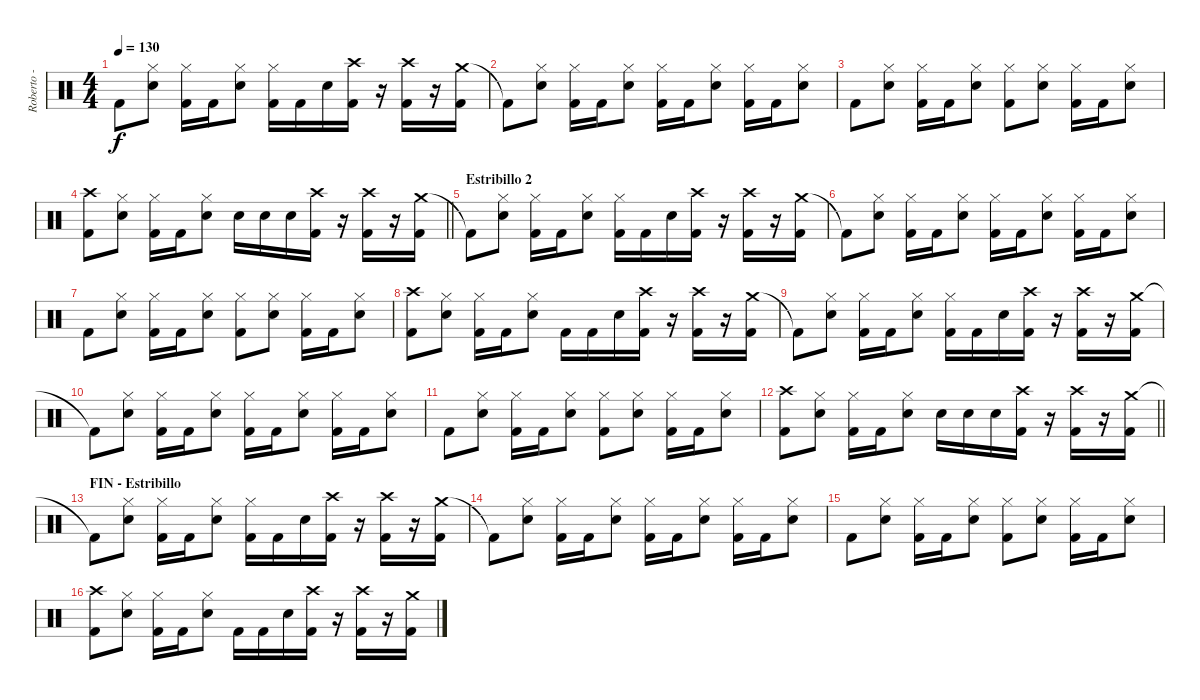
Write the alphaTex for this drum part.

\track ("Roberto - Bateria" "Roberto - ") {instrument percussion}
\staff {score}
\articulation defaults
\ts (4 4)
\tempo 130
\clef neutral
\ks c "Kick (hit) 2"{t}.8{dy f}
("Hi-Hat (closed)" "Snare (hit) 2").8 ("Hi-Hat (closed)" "Kick (hit) 2").16 "Kick (hit) 2".16 ("Hi-Hat (closed)" "Snare (hit) 2").8 ("Hi-Hat (closed)" "Kick (hit) 2").16 "Kick (hit) 2".16 "Snare (hit) 2".16 ("Crash high (hit)" "Kick (hit) 2").16 r.16 ("Crash high (hit)" "Kick (hit) 2").16 r.16 ("Crash medium (hit)" "Kick (hit) 2").16 |
"Kick (hit) 2"{t}.8 ("Hi-Hat (closed)" "Snare (hit) 2").8 ("Hi-Hat (closed)" "Kick (hit) 2").16 "Kick (hit) 2".16 ("Hi-Hat (closed)" "Snare (hit) 2").8 ("Hi-Hat (closed)" "Kick (hit) 2").16 "Kick (hit) 2".16 ("Hi-Hat (closed)" "Snare (hit) 2").8 ("Hi-Hat (closed)" "Kick (hit) 2").16 "Kick (hit) 2".16 ("Hi-Hat (closed)" "Snare (hit) 2").8 |
"Kick (hit) 2".8 ("Hi-Hat (closed)" "Snare (hit) 2").8 ("Hi-Hat (closed)" "Kick (hit) 2").16 "Kick (hit) 2".16 ("Hi-Hat (closed)" "Snare (hit) 2").8 ("Hi-Hat (closed)" "Kick (hit) 2").8 ("Hi-Hat (closed)" "Snare (hit) 2").8 ("Hi-Hat (closed)" "Kick (hit) 2").16 "Kick (hit) 2".16 ("Hi-Hat (closed)" "Snare (hit) 2").8 |
\barLineRight lightlight
("Crash high (hit)" "Kick (hit) 2").8 ("Hi-Hat (closed)" "Snare (hit) 2").8 ("Hi-Hat (closed)" "Kick (hit) 2").16 "Kick (hit) 2".16 ("Hi-Hat (closed)" "Snare (hit) 2").8 "Snare (hit) 2".16 "Snare (hit) 2".16 "Snare (hit) 2".16 ("Crash high (hit)" "Kick (hit) 2").16 r.16 ("Crash high (hit)" "Kick (hit) 2").16 r.16 ("Crash medium (hit)" "Kick (hit) 2").16 |
\section ("" "Estribillo 2")
"Kick (hit) 2"{t}.8 ("Hi-Hat (closed)" "Snare (hit) 2").8 ("Hi-Hat (closed)" "Kick (hit) 2").16 "Kick (hit) 2".16 ("Hi-Hat (closed)" "Snare (hit) 2").8 ("Hi-Hat (closed)" "Kick (hit) 2").16 "Kick (hit) 2".16 "Snare (hit) 2".16 ("Crash high (hit)" "Kick (hit) 2").16 r.16 ("Crash high (hit)" "Kick (hit) 2").16 r.16 ("Crash medium (hit)" "Kick (hit) 2").16 |
"Kick (hit) 2"{t}.8 ("Hi-Hat (closed)" "Snare (hit) 2").8 ("Hi-Hat (closed)" "Kick (hit) 2").16 "Kick (hit) 2".16 ("Hi-Hat (closed)" "Snare (hit) 2").8 ("Hi-Hat (closed)" "Kick (hit) 2").16 "Kick (hit) 2".16 ("Hi-Hat (closed)" "Snare (hit) 2").8 ("Hi-Hat (closed)" "Kick (hit) 2").16 "Kick (hit) 2".16 ("Hi-Hat (closed)" "Snare (hit) 2").8 |
"Kick (hit) 2".8 ("Hi-Hat (closed)" "Snare (hit) 2").8 ("Hi-Hat (closed)" "Kick (hit) 2").16 "Kick (hit) 2".16 ("Hi-Hat (closed)" "Snare (hit) 2").8 ("Hi-Hat (closed)" "Kick (hit) 2").8 ("Hi-Hat (closed)" "Snare (hit) 2").8 ("Hi-Hat (closed)" "Kick (hit) 2").16 "Kick (hit) 2".16 ("Hi-Hat (closed)" "Snare (hit) 2").8 |
("Crash high (hit)" "Kick (hit) 2").8 ("Hi-Hat (closed)" "Snare (hit) 2").8 ("Hi-Hat (closed)" "Kick (hit) 2").16 "Kick (hit) 2".16 ("Hi-Hat (closed)" "Snare (hit) 2").8 "Kick (hit) 2".16 "Kick (hit) 2".16 "Snare (hit) 2".16 ("Crash high (hit)" "Kick (hit) 2").16 r.16 ("Crash high (hit)" "Kick (hit) 2").16 r.16 ("Crash medium (hit)" "Kick (hit) 2").16 |
"Kick (hit) 2"{t}.8 ("Hi-Hat (closed)" "Snare (hit) 2").8 ("Hi-Hat (closed)" "Kick (hit) 2").16 "Kick (hit) 2".16 ("Hi-Hat (closed)" "Snare (hit) 2").8 ("Hi-Hat (closed)" "Kick (hit) 2").16 "Kick (hit) 2".16 "Snare (hit) 2".16 ("Crash high (hit)" "Kick (hit) 2").16 r.16 ("Crash high (hit)" "Kick (hit) 2").16 r.16 ("Crash medium (hit)" "Kick (hit) 2").16 |
"Kick (hit) 2"{t}.8 ("Hi-Hat (closed)" "Snare (hit) 2").8 ("Hi-Hat (closed)" "Kick (hit) 2").16 "Kick (hit) 2".16 ("Hi-Hat (closed)" "Snare (hit) 2").8 ("Hi-Hat (closed)" "Kick (hit) 2").16 "Kick (hit) 2".16 ("Hi-Hat (closed)" "Snare (hit) 2").8 ("Hi-Hat (closed)" "Kick (hit) 2").16 "Kick (hit) 2".16 ("Hi-Hat (closed)" "Snare (hit) 2").8 |
"Kick (hit) 2".8 ("Hi-Hat (closed)" "Snare (hit) 2").8 ("Hi-Hat (closed)" "Kick (hit) 2").16 "Kick (hit) 2".16 ("Hi-Hat (closed)" "Snare (hit) 2").8 ("Hi-Hat (closed)" "Kick (hit) 2").8 ("Hi-Hat (closed)" "Snare (hit) 2").8 ("Hi-Hat (closed)" "Kick (hit) 2").16 "Kick (hit) 2".16 ("Hi-Hat (closed)" "Snare (hit) 2").8 |
\barLineRight lightlight
("Crash high (hit)" "Kick (hit) 2").8 ("Hi-Hat (closed)" "Snare (hit) 2").8 ("Hi-Hat (closed)" "Kick (hit) 2").16 "Kick (hit) 2".16 ("Hi-Hat (closed)" "Snare (hit) 2").8 "Snare (hit) 2".16 "Snare (hit) 2".16 "Snare (hit) 2".16 ("Crash high (hit)" "Kick (hit) 2").16 r.16 ("Crash high (hit)" "Kick (hit) 2").16 r.16 ("Crash medium (hit)" "Kick (hit) 2").16 |
\section ("" "FIN - Estribillo")
"Kick (hit) 2"{t}.8 ("Hi-Hat (closed)" "Snare (hit) 2").8 ("Hi-Hat (closed)" "Kick (hit) 2").16 "Kick (hit) 2".16 ("Hi-Hat (closed)" "Snare (hit) 2").8 ("Hi-Hat (closed)" "Kick (hit) 2").16 "Kick (hit) 2".16 "Snare (hit) 2".16 ("Crash high (hit)" "Kick (hit) 2").16 r.16 ("Crash high (hit)" "Kick (hit) 2").16 r.16 ("Crash medium (hit)" "Kick (hit) 2").16 |
"Kick (hit) 2"{t}.8 ("Hi-Hat (closed)" "Snare (hit) 2").8 ("Hi-Hat (closed)" "Kick (hit) 2").16 "Kick (hit) 2".16 ("Hi-Hat (closed)" "Snare (hit) 2").8 ("Hi-Hat (closed)" "Kick (hit) 2").16 "Kick (hit) 2".16 ("Hi-Hat (closed)" "Snare (hit) 2").8 ("Hi-Hat (closed)" "Kick (hit) 2").16 "Kick (hit) 2".16 ("Hi-Hat (closed)" "Snare (hit) 2").8 |
"Kick (hit) 2".8 ("Hi-Hat (closed)" "Snare (hit) 2").8 ("Hi-Hat (closed)" "Kick (hit) 2").16 "Kick (hit) 2".16 ("Hi-Hat (closed)" "Snare (hit) 2").8 ("Hi-Hat (closed)" "Kick (hit) 2").8 ("Hi-Hat (closed)" "Snare (hit) 2").8 ("Hi-Hat (closed)" "Kick (hit) 2").16 "Kick (hit) 2".16 ("Hi-Hat (closed)" "Snare (hit) 2").8 |
("Crash high (hit)" "Kick (hit) 2").8 ("Hi-Hat (closed)" "Snare (hit) 2").8 ("Hi-Hat (closed)" "Kick (hit) 2").16 "Kick (hit) 2".16 ("Hi-Hat (closed)" "Snare (hit) 2").8 "Kick (hit) 2".16 "Kick (hit) 2".16 "Snare (hit) 2".16 ("Crash high (hit)" "Kick (hit) 2").16 r.16 ("Crash high (hit)" "Kick (hit) 2").16 r.16 ("Crash medium (hit)" "Kick (hit) 2").16
